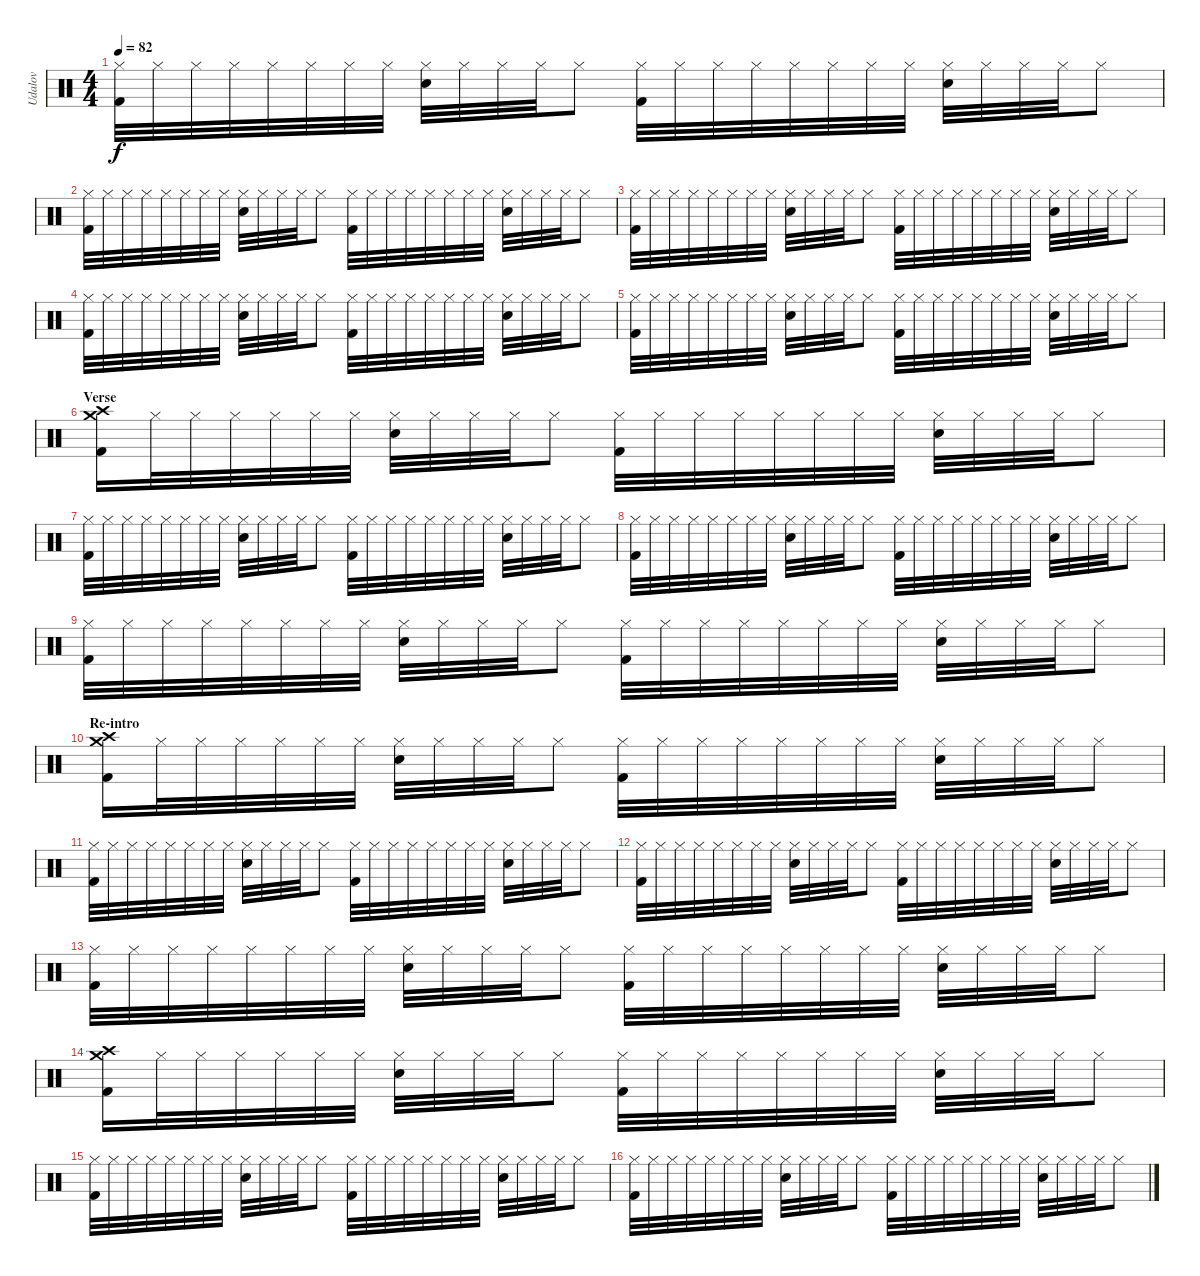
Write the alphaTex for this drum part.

\track ("Udalov" "Udalov") {instrument percussion}
\staff {score}
\articulation defaults
\ts (4 4)
\tempo 82
\clef neutral
\ks c
("Hi-Hat (closed)" "Kick (hit) 2").32{dy f} "Hi-Hat (closed)".32 "Hi-Hat (closed)".32 "Hi-Hat (closed)".32 "Hi-Hat (closed)".32 "Hi-Hat (closed)".32 "Hi-Hat (closed)".32 "Hi-Hat (closed)".32 ("Hi-Hat (closed)" "Snare (hit) 2").32 "Hi-Hat (closed)".32 "Hi-Hat (closed)".32 "Hi-Hat (closed)".32 "Hi-Hat (closed)".8 ("Hi-Hat (closed)" "Kick (hit) 2").32 "Hi-Hat (closed)".32 "Hi-Hat (closed)".32 "Hi-Hat (closed)".32 "Hi-Hat (closed)".32 "Hi-Hat (closed)".32 "Hi-Hat (closed)".32 "Hi-Hat (closed)".32 ("Hi-Hat (closed)" "Snare (hit) 2").32 "Hi-Hat (closed)".32 "Hi-Hat (closed)".32 "Hi-Hat (closed)".32 "Hi-Hat (closed)".8 |
("Hi-Hat (closed)" "Kick (hit) 2").32 "Hi-Hat (closed)".32 "Hi-Hat (closed)".32 "Hi-Hat (closed)".32 "Hi-Hat (closed)".32 "Hi-Hat (closed)".32 "Hi-Hat (closed)".32 "Hi-Hat (closed)".32 ("Hi-Hat (closed)" "Snare (hit) 2").32 "Hi-Hat (closed)".32 "Hi-Hat (closed)".32 "Hi-Hat (closed)".32 "Hi-Hat (closed)".8 ("Hi-Hat (closed)" "Kick (hit) 2").32 "Hi-Hat (closed)".32 "Hi-Hat (closed)".32 "Hi-Hat (closed)".32 "Hi-Hat (closed)".32 "Hi-Hat (closed)".32 "Hi-Hat (closed)".32 "Hi-Hat (closed)".32 ("Hi-Hat (closed)" "Snare (hit) 2").32 "Hi-Hat (closed)".32 "Hi-Hat (closed)".32 "Hi-Hat (closed)".32 "Hi-Hat (closed)".8 |
("Hi-Hat (closed)" "Kick (hit) 2").32 "Hi-Hat (closed)".32 "Hi-Hat (closed)".32 "Hi-Hat (closed)".32 "Hi-Hat (closed)".32 "Hi-Hat (closed)".32 "Hi-Hat (closed)".32 "Hi-Hat (closed)".32 ("Hi-Hat (closed)" "Snare (hit) 2").32 "Hi-Hat (closed)".32 "Hi-Hat (closed)".32 "Hi-Hat (closed)".32 "Hi-Hat (closed)".8 ("Hi-Hat (closed)" "Kick (hit) 2").32 "Hi-Hat (closed)".32 "Hi-Hat (closed)".32 "Hi-Hat (closed)".32 "Hi-Hat (closed)".32 "Hi-Hat (closed)".32 "Hi-Hat (closed)".32 "Hi-Hat (closed)".32 ("Hi-Hat (closed)" "Snare (hit) 2").32 "Hi-Hat (closed)".32 "Hi-Hat (closed)".32 "Hi-Hat (closed)".32 "Hi-Hat (closed)".8 |
("Hi-Hat (closed)" "Kick (hit) 2").32 "Hi-Hat (closed)".32 "Hi-Hat (closed)".32 "Hi-Hat (closed)".32 "Hi-Hat (closed)".32 "Hi-Hat (closed)".32 "Hi-Hat (closed)".32 "Hi-Hat (closed)".32 ("Hi-Hat (closed)" "Snare (hit) 2").32 "Hi-Hat (closed)".32 "Hi-Hat (closed)".32 "Hi-Hat (closed)".32 "Hi-Hat (closed)".8 ("Hi-Hat (closed)" "Kick (hit) 2").32 "Hi-Hat (closed)".32 "Hi-Hat (closed)".32 "Hi-Hat (closed)".32 "Hi-Hat (closed)".32 "Hi-Hat (closed)".32 "Hi-Hat (closed)".32 "Hi-Hat (closed)".32 ("Hi-Hat (closed)" "Snare (hit) 2").32 "Hi-Hat (closed)".32 "Hi-Hat (closed)".32 "Hi-Hat (closed)".32 "Hi-Hat (closed)".8 |
("Hi-Hat (closed)" "Kick (hit) 2").32 "Hi-Hat (closed)".32 "Hi-Hat (closed)".32 "Hi-Hat (closed)".32 "Hi-Hat (closed)".32 "Hi-Hat (closed)".32 "Hi-Hat (closed)".32 "Hi-Hat (closed)".32 ("Hi-Hat (closed)" "Snare (hit) 2").32 "Hi-Hat (closed)".32 "Hi-Hat (closed)".32 "Hi-Hat (closed)".32 "Hi-Hat (closed)".8 ("Hi-Hat (closed)" "Kick (hit) 2").32 "Hi-Hat (closed)".32 "Hi-Hat (closed)".32 "Hi-Hat (closed)".32 "Hi-Hat (closed)".32 "Hi-Hat (closed)".32 "Hi-Hat (closed)".32 "Hi-Hat (closed)".32 ("Hi-Hat (closed)" "Snare (hit) 2").32 "Hi-Hat (closed)".32 "Hi-Hat (closed)".32 "Hi-Hat (closed)".32 "Hi-Hat (closed)".8 |
\section ("" "Verse")
("Crash high (hit)" "Crash medium (hit)" "Kick (hit) 2").16{volume 16} "Hi-Hat (closed)".32 "Hi-Hat (closed)".32 "Hi-Hat (closed)".32 "Hi-Hat (closed)".32 "Hi-Hat (closed)".32 "Hi-Hat (closed)".32 ("Hi-Hat (closed)" "Snare (hit) 2").32 "Hi-Hat (closed)".32 "Hi-Hat (closed)".32 "Hi-Hat (closed)".32 "Hi-Hat (closed)".8 ("Hi-Hat (closed)" "Kick (hit) 2").32 "Hi-Hat (closed)".32 "Hi-Hat (closed)".32 "Hi-Hat (closed)".32 "Hi-Hat (closed)".32 "Hi-Hat (closed)".32 "Hi-Hat (closed)".32 "Hi-Hat (closed)".32 ("Hi-Hat (closed)" "Snare (hit) 2").32 "Hi-Hat (closed)".32 "Hi-Hat (closed)".32 "Hi-Hat (closed)".32 "Hi-Hat (closed)".8 |
("Hi-Hat (closed)" "Kick (hit) 2").32 "Hi-Hat (closed)".32 "Hi-Hat (closed)".32 "Hi-Hat (closed)".32 "Hi-Hat (closed)".32 "Hi-Hat (closed)".32 "Hi-Hat (closed)".32 "Hi-Hat (closed)".32 ("Hi-Hat (closed)" "Snare (hit) 2").32 "Hi-Hat (closed)".32 "Hi-Hat (closed)".32 "Hi-Hat (closed)".32 "Hi-Hat (closed)".8 ("Hi-Hat (closed)" "Kick (hit) 2").32 "Hi-Hat (closed)".32 "Hi-Hat (closed)".32 "Hi-Hat (closed)".32 "Hi-Hat (closed)".32 "Hi-Hat (closed)".32 "Hi-Hat (closed)".32 "Hi-Hat (closed)".32 ("Hi-Hat (closed)" "Snare (hit) 2").32 "Hi-Hat (closed)".32 "Hi-Hat (closed)".32 "Hi-Hat (closed)".32 "Hi-Hat (closed)".8 |
("Hi-Hat (closed)" "Kick (hit) 2").32 "Hi-Hat (closed)".32 "Hi-Hat (closed)".32 "Hi-Hat (closed)".32 "Hi-Hat (closed)".32 "Hi-Hat (closed)".32 "Hi-Hat (closed)".32 "Hi-Hat (closed)".32 ("Hi-Hat (closed)" "Snare (hit) 2").32 "Hi-Hat (closed)".32 "Hi-Hat (closed)".32 "Hi-Hat (closed)".32 "Hi-Hat (closed)".8 ("Hi-Hat (closed)" "Kick (hit) 2").32 "Hi-Hat (closed)".32 "Hi-Hat (closed)".32 "Hi-Hat (closed)".32 "Hi-Hat (closed)".32 "Hi-Hat (closed)".32 "Hi-Hat (closed)".32 "Hi-Hat (closed)".32 ("Hi-Hat (closed)" "Snare (hit) 2").32 "Hi-Hat (closed)".32 "Hi-Hat (closed)".32 "Hi-Hat (closed)".32 "Hi-Hat (closed)".8 |
("Hi-Hat (closed)" "Kick (hit) 2").32 "Hi-Hat (closed)".32 "Hi-Hat (closed)".32 "Hi-Hat (closed)".32 "Hi-Hat (closed)".32 "Hi-Hat (closed)".32 "Hi-Hat (closed)".32 "Hi-Hat (closed)".32 ("Hi-Hat (closed)" "Snare (hit) 2").32 "Hi-Hat (closed)".32 "Hi-Hat (closed)".32 "Hi-Hat (closed)".32 "Hi-Hat (closed)".8 ("Hi-Hat (closed)" "Kick (hit) 2").32 "Hi-Hat (closed)".32 "Hi-Hat (closed)".32 "Hi-Hat (closed)".32 "Hi-Hat (closed)".32 "Hi-Hat (closed)".32 "Hi-Hat (closed)".32 "Hi-Hat (closed)".32 ("Hi-Hat (closed)" "Snare (hit) 2").32 "Hi-Hat (closed)".32 "Hi-Hat (closed)".32 "Hi-Hat (closed)".32 "Hi-Hat (closed)".8 |
\section ("" "Re-intro")
("Crash high (hit)" "Crash medium (hit)" "Kick (hit) 2").16 "Hi-Hat (closed)".32 "Hi-Hat (closed)".32 "Hi-Hat (closed)".32 "Hi-Hat (closed)".32 "Hi-Hat (closed)".32 "Hi-Hat (closed)".32 ("Hi-Hat (closed)" "Snare (hit) 2").32 "Hi-Hat (closed)".32 "Hi-Hat (closed)".32 "Hi-Hat (closed)".32 "Hi-Hat (closed)".8 ("Hi-Hat (closed)" "Kick (hit) 2").32 "Hi-Hat (closed)".32 "Hi-Hat (closed)".32 "Hi-Hat (closed)".32 "Hi-Hat (closed)".32 "Hi-Hat (closed)".32 "Hi-Hat (closed)".32 "Hi-Hat (closed)".32 ("Hi-Hat (closed)" "Snare (hit) 2").32 "Hi-Hat (closed)".32 "Hi-Hat (closed)".32 "Hi-Hat (closed)".32 "Hi-Hat (closed)".8 |
("Hi-Hat (closed)" "Kick (hit) 2").32 "Hi-Hat (closed)".32 "Hi-Hat (closed)".32 "Hi-Hat (closed)".32 "Hi-Hat (closed)".32 "Hi-Hat (closed)".32 "Hi-Hat (closed)".32 "Hi-Hat (closed)".32 ("Hi-Hat (closed)" "Snare (hit) 2").32 "Hi-Hat (closed)".32 "Hi-Hat (closed)".32 "Hi-Hat (closed)".32 "Hi-Hat (closed)".8 ("Hi-Hat (closed)" "Kick (hit) 2").32 "Hi-Hat (closed)".32 "Hi-Hat (closed)".32 "Hi-Hat (closed)".32 "Hi-Hat (closed)".32 "Hi-Hat (closed)".32 "Hi-Hat (closed)".32 "Hi-Hat (closed)".32 ("Hi-Hat (closed)" "Snare (hit) 2").32 "Hi-Hat (closed)".32 "Hi-Hat (closed)".32 "Hi-Hat (closed)".32 "Hi-Hat (closed)".8 |
("Hi-Hat (closed)" "Kick (hit) 2").32 "Hi-Hat (closed)".32 "Hi-Hat (closed)".32 "Hi-Hat (closed)".32 "Hi-Hat (closed)".32 "Hi-Hat (closed)".32 "Hi-Hat (closed)".32 "Hi-Hat (closed)".32 ("Hi-Hat (closed)" "Snare (hit) 2").32 "Hi-Hat (closed)".32 "Hi-Hat (closed)".32 "Hi-Hat (closed)".32 "Hi-Hat (closed)".8 ("Hi-Hat (closed)" "Kick (hit) 2").32 "Hi-Hat (closed)".32 "Hi-Hat (closed)".32 "Hi-Hat (closed)".32 "Hi-Hat (closed)".32 "Hi-Hat (closed)".32 "Hi-Hat (closed)".32 "Hi-Hat (closed)".32 ("Hi-Hat (closed)" "Snare (hit) 2").32 "Hi-Hat (closed)".32 "Hi-Hat (closed)".32 "Hi-Hat (closed)".32 "Hi-Hat (closed)".8 |
("Hi-Hat (closed)" "Kick (hit) 2").32 "Hi-Hat (closed)".32 "Hi-Hat (closed)".32 "Hi-Hat (closed)".32 "Hi-Hat (closed)".32 "Hi-Hat (closed)".32 "Hi-Hat (closed)".32 "Hi-Hat (closed)".32 ("Hi-Hat (closed)" "Snare (hit) 2").32 "Hi-Hat (closed)".32 "Hi-Hat (closed)".32 "Hi-Hat (closed)".32 "Hi-Hat (closed)".8 ("Hi-Hat (closed)" "Kick (hit) 2").32 "Hi-Hat (closed)".32 "Hi-Hat (closed)".32 "Hi-Hat (closed)".32 "Hi-Hat (closed)".32 "Hi-Hat (closed)".32 "Hi-Hat (closed)".32 "Hi-Hat (closed)".32 ("Hi-Hat (closed)" "Snare (hit) 2").32 "Hi-Hat (closed)".32 "Hi-Hat (closed)".32 "Hi-Hat (closed)".32 "Hi-Hat (closed)".8 |
("Crash high (hit)" "Crash medium (hit)" "Kick (hit) 2").16 "Hi-Hat (closed)".32 "Hi-Hat (closed)".32 "Hi-Hat (closed)".32 "Hi-Hat (closed)".32 "Hi-Hat (closed)".32 "Hi-Hat (closed)".32 ("Hi-Hat (closed)" "Snare (hit) 2").32 "Hi-Hat (closed)".32 "Hi-Hat (closed)".32 "Hi-Hat (closed)".32 "Hi-Hat (closed)".8 ("Hi-Hat (closed)" "Kick (hit) 2").32 "Hi-Hat (closed)".32 "Hi-Hat (closed)".32 "Hi-Hat (closed)".32 "Hi-Hat (closed)".32 "Hi-Hat (closed)".32 "Hi-Hat (closed)".32 "Hi-Hat (closed)".32 ("Hi-Hat (closed)" "Snare (hit) 2").32 "Hi-Hat (closed)".32 "Hi-Hat (closed)".32 "Hi-Hat (closed)".32 "Hi-Hat (closed)".8 |
("Hi-Hat (closed)" "Kick (hit) 2").32 "Hi-Hat (closed)".32 "Hi-Hat (closed)".32 "Hi-Hat (closed)".32 "Hi-Hat (closed)".32 "Hi-Hat (closed)".32 "Hi-Hat (closed)".32 "Hi-Hat (closed)".32 ("Hi-Hat (closed)" "Snare (hit) 2").32 "Hi-Hat (closed)".32 "Hi-Hat (closed)".32 "Hi-Hat (closed)".32 "Hi-Hat (closed)".8 ("Hi-Hat (closed)" "Kick (hit) 2").32 "Hi-Hat (closed)".32 "Hi-Hat (closed)".32 "Hi-Hat (closed)".32 "Hi-Hat (closed)".32 "Hi-Hat (closed)".32 "Hi-Hat (closed)".32 "Hi-Hat (closed)".32 ("Hi-Hat (closed)" "Snare (hit) 2").32 "Hi-Hat (closed)".32 "Hi-Hat (closed)".32 "Hi-Hat (closed)".32 "Hi-Hat (closed)".8 |
("Hi-Hat (closed)" "Kick (hit) 2").32 "Hi-Hat (closed)".32 "Hi-Hat (closed)".32 "Hi-Hat (closed)".32 "Hi-Hat (closed)".32 "Hi-Hat (closed)".32 "Hi-Hat (closed)".32 "Hi-Hat (closed)".32 ("Hi-Hat (closed)" "Snare (hit) 2").32 "Hi-Hat (closed)".32 "Hi-Hat (closed)".32 "Hi-Hat (closed)".32 "Hi-Hat (closed)".8 ("Hi-Hat (closed)" "Kick (hit) 2").32 "Hi-Hat (closed)".32 "Hi-Hat (closed)".32 "Hi-Hat (closed)".32 "Hi-Hat (closed)".32 "Hi-Hat (closed)".32 "Hi-Hat (closed)".32 "Hi-Hat (closed)".32 ("Hi-Hat (closed)" "Snare (hit) 2").32 "Hi-Hat (closed)".32 "Hi-Hat (closed)".32 "Hi-Hat (closed)".32 "Hi-Hat (closed)".8
